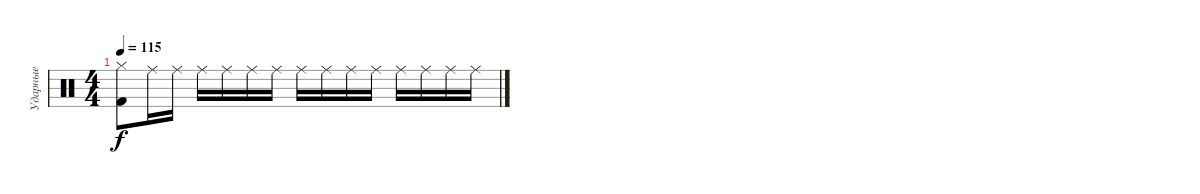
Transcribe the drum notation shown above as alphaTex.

\track ("Ударные" "Ударные") {instrument percussion}
\staff {score}
\articulation defaults
\ts (4 4)
\tempo 115
\clef neutral
\ks c
("Hi-Hat (closed)" "Kick (hit) 2").8{dy f} "Ride (middle)".16 "Ride (middle)".16 "Ride (middle)".16 "Ride (middle)".16 "Ride (middle)".16 "Ride (middle)".16 "Ride (middle)".16 "Ride (middle)".16 "Ride (middle)".16 "Ride (middle)".16 "Ride (middle)".16 "Ride (middle)".16 "Ride (middle)".16 "Ride (middle)".16
